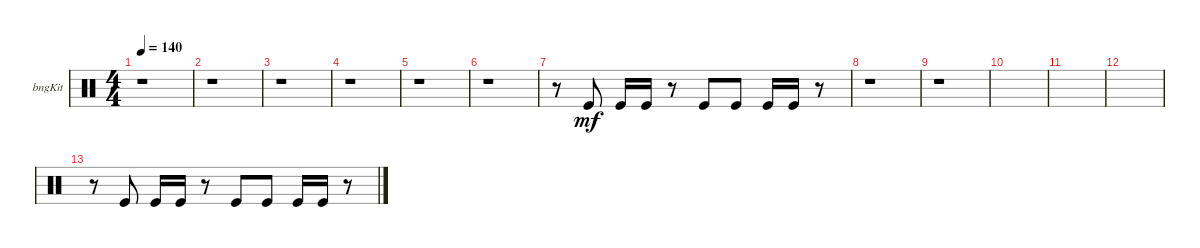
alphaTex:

\defaultSystemsLayout 4
\bracketExtendMode groupsimilarinstruments
\firstSystemTrackNameOrientation horizontal
\otherSystemsTrackNameOrientation horizontal
\track ("Bongos" "bngKit") {instrument percussion}
\staff {score}
\articulation defaults
\ts (4 4)
\tempo 140
\clef neutral
\scale
0.472222
\ks c
r.1{dy mf} |
\scale
0.263889 r.1 |
\scale
0.263889 r.1 |
\scale
0.333333 r.1 |
\scale
0.333333 r.1 |
\scale
0.333333 r.1 |
\scale
0.333333 r.8 "Kick (hit)".8 "Kick (hit)".16 "Kick (hit)".16 r.8 "Kick (hit)".8 "Kick (hit)".8 "Kick (hit)".16 "Kick (hit)".16 r.8 |
\scale
0.333333 r.1 |
\scale
0.333333 r.1 |
|
|
|
r.8 "Kick (hit)".8 "Kick (hit)".16 "Kick (hit)".16 r.8 "Kick (hit)".8 "Kick (hit)".8 "Kick (hit)".16 "Kick (hit)".16 r.8
